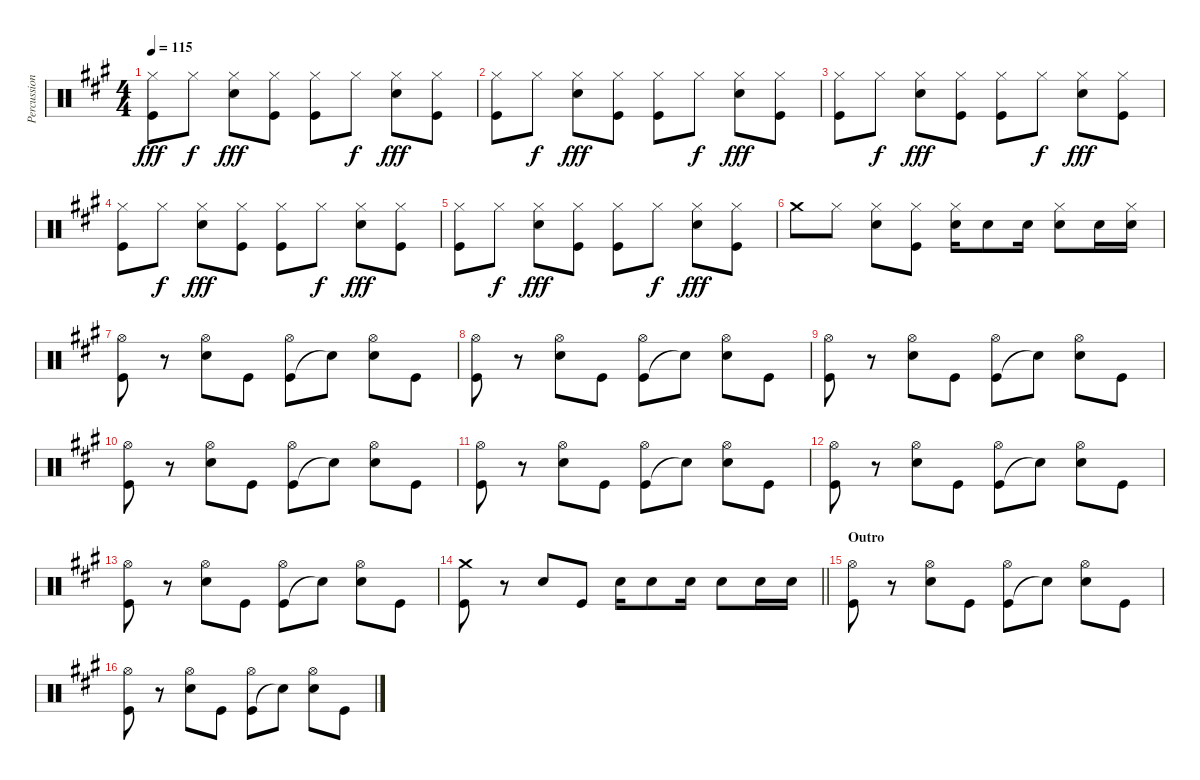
\track ("Percussion" "Percussion") {instrument percussion}
\staff {score}
\articulation defaults
\ts (4 4)
\tempo 115
\clef neutral
\ks a
("Kick (hit)" "Hi-Hat (closed)").8{dy fff} "Hi-Hat (closed)".8{dy f} ("Electric Snare (hit)" "Hi-Hat (closed)").8{dy fff} ("Kick (hit)" "Hi-Hat (closed)").8 ("Kick (hit)" "Hi-Hat (closed)").8 "Hi-Hat (closed)".8{dy f} ("Electric Snare (hit)" "Hi-Hat (closed)").8{dy fff} ("Kick (hit)" "Hi-Hat (closed)").8 |
("Kick (hit)" "Hi-Hat (closed)").8 "Hi-Hat (closed)".8{dy f} ("Electric Snare (hit)" "Hi-Hat (closed)").8{dy fff} ("Kick (hit)" "Hi-Hat (closed)").8 ("Kick (hit)" "Hi-Hat (closed)").8 "Hi-Hat (closed)".8{dy f} ("Electric Snare (hit)" "Hi-Hat (closed)").8{dy fff} ("Kick (hit)" "Hi-Hat (closed)").8 |
("Kick (hit)" "Hi-Hat (closed)").8 "Hi-Hat (closed)".8{dy f} ("Electric Snare (hit)" "Hi-Hat (closed)").8{dy fff} ("Kick (hit)" "Hi-Hat (closed)").8 ("Kick (hit)" "Hi-Hat (closed)").8 "Hi-Hat (closed)".8{dy f} ("Electric Snare (hit)" "Hi-Hat (closed)").8{dy fff} ("Kick (hit)" "Hi-Hat (closed)").8 |
("Kick (hit)" "Hi-Hat (closed)").8 "Hi-Hat (closed)".8{dy f} ("Electric Snare (hit)" "Hi-Hat (closed)").8{dy fff} ("Kick (hit)" "Hi-Hat (closed)").8 ("Kick (hit)" "Hi-Hat (closed)").8 "Hi-Hat (closed)".8{dy f} ("Electric Snare (hit)" "Hi-Hat (closed)").8{dy fff} ("Kick (hit)" "Hi-Hat (closed)").8 |
("Kick (hit)" "Hi-Hat (closed)").8 "Hi-Hat (closed)".8{dy f} ("Electric Snare (hit)" "Hi-Hat (closed)").8{dy fff} ("Kick (hit)" "Hi-Hat (closed)").8 ("Kick (hit)" "Hi-Hat (closed)").8 "Hi-Hat (closed)".8{dy f} ("Electric Snare (hit)" "Hi-Hat (closed)").8{dy fff} ("Kick (hit)" "Hi-Hat (closed)").8 |
"Crash medium (hit)".8 "Hi-Hat (closed)".8 ("Electric Snare (hit)" "Hi-Hat (closed)").8 ("Kick (hit)" "Hi-Hat (closed)").8 ("Electric Snare (hit)" "Hi-Hat (closed)").16 "Electric Snare (hit)".8 "Electric Snare (hit)".16 ("Electric Snare (hit)" "Hi-Hat (closed)").8 "Electric Snare (hit)".16 ("Electric Snare (hit)" "Hi-Hat (closed)").16 |
("Kick (hit)" "Hi-Hat (open)").8 r.8 ("Electric Snare (hit)" "Hi-Hat (open)").8 "Kick (hit)".8 ("Kick (hit)" "Hi-Hat (open)").8 "Snare (hit)"{t}.8 ("Electric Snare (hit)" "Hi-Hat (open)").8 "Kick (hit)".8 |
("Kick (hit)" "Hi-Hat (open)").8 r.8 ("Electric Snare (hit)" "Hi-Hat (open)").8 "Kick (hit)".8 ("Kick (hit)" "Hi-Hat (open)").8 "Snare (hit)"{t}.8 ("Electric Snare (hit)" "Hi-Hat (open)").8 "Kick (hit)".8 |
("Kick (hit)" "Hi-Hat (open)").8 r.8 ("Electric Snare (hit)" "Hi-Hat (open)").8 "Kick (hit)".8 ("Kick (hit)" "Hi-Hat (open)").8 "Snare (hit)"{t}.8 ("Electric Snare (hit)" "Hi-Hat (open)").8 "Kick (hit)".8 |
("Kick (hit)" "Hi-Hat (open)").8 r.8 ("Electric Snare (hit)" "Hi-Hat (open)").8 "Kick (hit)".8 ("Kick (hit)" "Hi-Hat (open)").8 "Snare (hit)"{t}.8 ("Electric Snare (hit)" "Hi-Hat (open)").8 "Kick (hit)".8 |
("Kick (hit)" "Hi-Hat (open)").8 r.8 ("Electric Snare (hit)" "Hi-Hat (open)").8 "Kick (hit)".8 ("Kick (hit)" "Hi-Hat (open)").8 "Snare (hit)"{t}.8 ("Electric Snare (hit)" "Hi-Hat (open)").8 "Kick (hit)".8 |
("Kick (hit)" "Hi-Hat (open)").8 r.8 ("Electric Snare (hit)" "Hi-Hat (open)").8 "Kick (hit)".8 ("Kick (hit)" "Hi-Hat (open)").8 "Snare (hit)"{t}.8 ("Electric Snare (hit)" "Hi-Hat (open)").8 "Kick (hit)".8 |
("Kick (hit)" "Hi-Hat (open)").8 r.8 ("Electric Snare (hit)" "Hi-Hat (open)").8 "Kick (hit)".8 ("Kick (hit)" "Hi-Hat (open)").8 "Snare (hit)"{t}.8 ("Electric Snare (hit)" "Hi-Hat (open)").8 "Kick (hit)".8 |
\barLineRight lightlight
("Crash medium (hit)" "Kick (hit)").8 r.8 "Electric Snare (hit)".8 "Kick (hit)".8 "Electric Snare (hit)".16 "Electric Snare (hit)".8 "Electric Snare (hit)".16 "Electric Snare (hit)".8 "Electric Snare (hit)".16 "Electric Snare (hit)".16 |
\section ("" "Outro")
("Kick (hit)" "Hi-Hat (open)").8 r.8 ("Electric Snare (hit)" "Hi-Hat (open)").8 "Kick (hit)".8 ("Kick (hit)" "Hi-Hat (open)").8 "Snare (hit)"{t}.8 ("Electric Snare (hit)" "Hi-Hat (open)").8 "Kick (hit)".8 |
("Kick (hit)" "Hi-Hat (open)").8 r.8 ("Electric Snare (hit)" "Hi-Hat (open)").8 "Kick (hit)".8 ("Kick (hit)" "Hi-Hat (open)").8 "Snare (hit)"{t}.8 ("Electric Snare (hit)" "Hi-Hat (open)").8 "Kick (hit)".8
